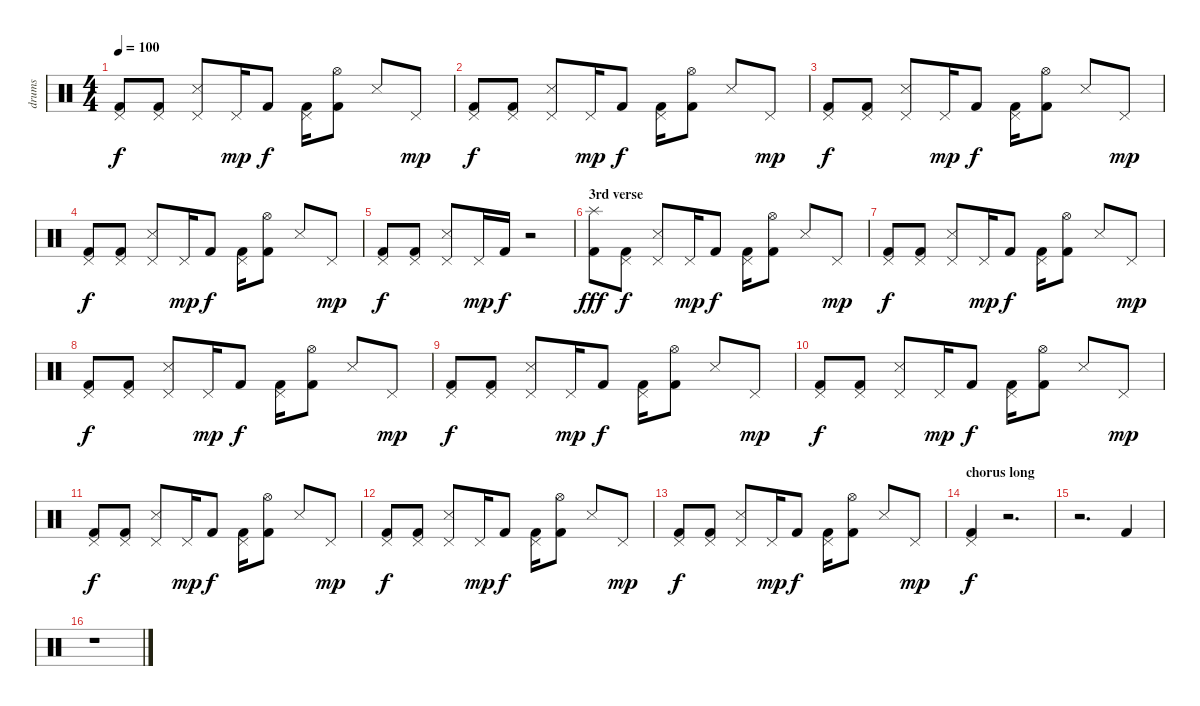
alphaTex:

\track ("drums" "drums") {instrument percussion}
\staff {score}
\articulation defaults
\ts (4 4)
\tempo 100
\clef neutral
\ks c
("Pedal Hi-Hat (hit)" "Kick (hit) 2").8{dy f} ("Pedal Hi-Hat (hit)" "Kick (hit) 2").8 ("Pedal Hi-Hat (hit)" "Snare (side stick) 3").8 "Pedal Hi-Hat (hit)".16{dy mp} "Kick (hit) 2".8{dy f} ("Pedal Hi-Hat (hit)" "Kick (hit) 2").16 ("Hi-Hat (open)" "Kick (hit) 2").8 "Snare (side stick) 3".8 "Pedal Hi-Hat (hit)".8{dy mp} |
("Pedal Hi-Hat (hit)" "Kick (hit) 2").8{dy f} ("Pedal Hi-Hat (hit)" "Kick (hit) 2").8 ("Pedal Hi-Hat (hit)" "Snare (side stick) 3").8 "Pedal Hi-Hat (hit)".16{dy mp} "Kick (hit) 2".8{dy f} ("Pedal Hi-Hat (hit)" "Kick (hit) 2").16 ("Hi-Hat (open)" "Kick (hit) 2").8 "Snare (side stick) 3".8 "Pedal Hi-Hat (hit)".8{dy mp} |
("Pedal Hi-Hat (hit)" "Kick (hit) 2").8{dy f} ("Pedal Hi-Hat (hit)" "Kick (hit) 2").8 ("Pedal Hi-Hat (hit)" "Snare (side stick) 3").8 "Pedal Hi-Hat (hit)".16{dy mp} "Kick (hit) 2".8{dy f} ("Pedal Hi-Hat (hit)" "Kick (hit) 2").16 ("Hi-Hat (open)" "Kick (hit) 2").8 "Snare (side stick) 3".8 "Pedal Hi-Hat (hit)".8{dy mp} |
("Pedal Hi-Hat (hit)" "Kick (hit) 2").8{dy f} ("Pedal Hi-Hat (hit)" "Kick (hit) 2").8 ("Pedal Hi-Hat (hit)" "Snare (side stick) 3").8 "Pedal Hi-Hat (hit)".16{dy mp} "Kick (hit) 2".8{dy f} ("Pedal Hi-Hat (hit)" "Kick (hit) 2").16 ("Hi-Hat (open)" "Kick (hit) 2").8 "Snare (side stick) 3".8 "Pedal Hi-Hat (hit)".8{dy mp} |
("Pedal Hi-Hat (hit)" "Kick (hit) 2").8{dy f} ("Pedal Hi-Hat (hit)" "Kick (hit) 2").8 ("Pedal Hi-Hat (hit)" "Snare (side stick) 3").8 "Pedal Hi-Hat (hit)".16{dy mp} "Kick (hit) 2".16{dy f} r.2 |
\section ("" "3rd verse")
("Splash (hit)" "Kick (hit) 2").8{dy fff} ("Pedal Hi-Hat (hit)" "Kick (hit) 2").8{dy f} ("Pedal Hi-Hat (hit)" "Snare (side stick) 3").8 "Pedal Hi-Hat (hit)".16{dy mp} "Kick (hit) 2".8{dy f} ("Pedal Hi-Hat (hit)" "Kick (hit) 2").16 ("Hi-Hat (open)" "Kick (hit) 2").8 "Snare (side stick) 3".8 "Pedal Hi-Hat (hit)".8{dy mp} |
("Pedal Hi-Hat (hit)" "Kick (hit) 2").8{dy f} ("Pedal Hi-Hat (hit)" "Kick (hit) 2").8 ("Pedal Hi-Hat (hit)" "Snare (side stick) 3").8 "Pedal Hi-Hat (hit)".16{dy mp} "Kick (hit) 2".8{dy f} ("Pedal Hi-Hat (hit)" "Kick (hit) 2").16 ("Hi-Hat (open)" "Kick (hit) 2").8 "Snare (side stick) 3".8 "Pedal Hi-Hat (hit)".8{dy mp} |
("Pedal Hi-Hat (hit)" "Kick (hit) 2").8{dy f} ("Pedal Hi-Hat (hit)" "Kick (hit) 2").8 ("Pedal Hi-Hat (hit)" "Snare (side stick) 3").8 "Pedal Hi-Hat (hit)".16{dy mp} "Kick (hit) 2".8{dy f} ("Pedal Hi-Hat (hit)" "Kick (hit) 2").16 ("Hi-Hat (open)" "Kick (hit) 2").8 "Snare (side stick) 3".8 "Pedal Hi-Hat (hit)".8{dy mp} |
("Pedal Hi-Hat (hit)" "Kick (hit) 2").8{dy f} ("Pedal Hi-Hat (hit)" "Kick (hit) 2").8 ("Pedal Hi-Hat (hit)" "Snare (side stick) 3").8 "Pedal Hi-Hat (hit)".16{dy mp} "Kick (hit) 2".8{dy f} ("Pedal Hi-Hat (hit)" "Kick (hit) 2").16 ("Hi-Hat (open)" "Kick (hit) 2").8 "Snare (side stick) 3".8 "Pedal Hi-Hat (hit)".8{dy mp} |
("Pedal Hi-Hat (hit)" "Kick (hit) 2").8{dy f} ("Pedal Hi-Hat (hit)" "Kick (hit) 2").8 ("Pedal Hi-Hat (hit)" "Snare (side stick) 3").8 "Pedal Hi-Hat (hit)".16{dy mp} "Kick (hit) 2".8{dy f} ("Pedal Hi-Hat (hit)" "Kick (hit) 2").16 ("Hi-Hat (open)" "Kick (hit) 2").8 "Snare (side stick) 3".8 "Pedal Hi-Hat (hit)".8{dy mp} |
("Pedal Hi-Hat (hit)" "Kick (hit) 2").8{dy f} ("Pedal Hi-Hat (hit)" "Kick (hit) 2").8 ("Pedal Hi-Hat (hit)" "Snare (side stick) 3").8 "Pedal Hi-Hat (hit)".16{dy mp} "Kick (hit) 2".8{dy f} ("Pedal Hi-Hat (hit)" "Kick (hit) 2").16 ("Hi-Hat (open)" "Kick (hit) 2").8 "Snare (side stick) 3".8 "Pedal Hi-Hat (hit)".8{dy mp} |
("Pedal Hi-Hat (hit)" "Kick (hit) 2").8{dy f} ("Pedal Hi-Hat (hit)" "Kick (hit) 2").8 ("Pedal Hi-Hat (hit)" "Snare (side stick) 3").8 "Pedal Hi-Hat (hit)".16{dy mp} "Kick (hit) 2".8{dy f} ("Pedal Hi-Hat (hit)" "Kick (hit) 2").16 ("Hi-Hat (open)" "Kick (hit) 2").8 "Snare (side stick) 3".8 "Pedal Hi-Hat (hit)".8{dy mp} |
("Pedal Hi-Hat (hit)" "Kick (hit) 2").8{dy f} ("Pedal Hi-Hat (hit)" "Kick (hit) 2").8 ("Pedal Hi-Hat (hit)" "Snare (side stick) 3").8 "Pedal Hi-Hat (hit)".16{dy mp} "Kick (hit) 2".8{dy f} ("Pedal Hi-Hat (hit)" "Kick (hit) 2").16 ("Hi-Hat (open)" "Kick (hit) 2").8 "Snare (side stick) 3".8 "Pedal Hi-Hat (hit)".8{dy mp} |
\section ("" "chorus long")
("Pedal Hi-Hat (hit)" "Kick (hit) 2").4{dy f} r.2{d} |
r.2{d} "Kick (hit) 2".4 |
r.1
